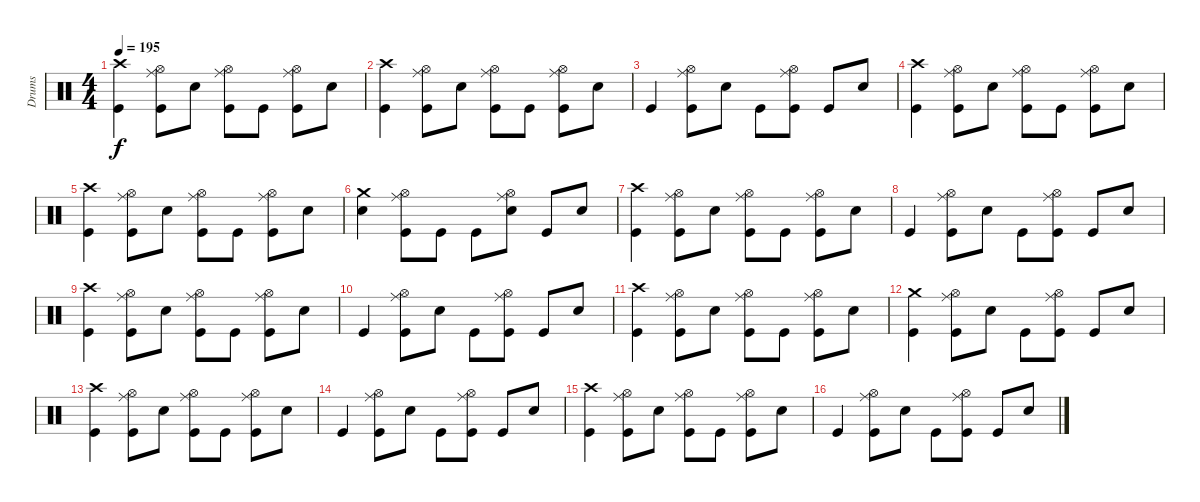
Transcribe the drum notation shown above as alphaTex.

\track ("Drums" "Drums") {instrument percussion}
\staff {score}
\articulation defaults
\ts (4 4)
\tempo 195
\clef neutral
\ks c
("Crash high (hit)" "Kick (hit)").4{dy f} ("Ride (middle)" "Hi-Hat (open)" "Kick (hit)").8 "Electric Snare (hit)".8 ("Ride (middle)" "Hi-Hat (open)" "Kick (hit)").8 "Kick (hit)".8 ("Ride (middle)" "Hi-Hat (open)" "Kick (hit)").8 "Electric Snare (hit)".8 |
("Crash high (hit)" "Kick (hit)").4 ("Hi-Hat (open)" "Ride (middle)" "Kick (hit)").8 "Electric Snare (hit)".8 ("Hi-Hat (open)" "Ride (middle)" "Kick (hit)").8 "Kick (hit)".8 ("Hi-Hat (open)" "Ride (middle)" "Kick (hit)").8 "Electric Snare (hit)".8 |
"Kick (hit)".4 ("Hi-Hat (open)" "Ride (middle)" "Kick (hit)").8 "Electric Snare (hit)".8 "Kick (hit)".8 ("Hi-Hat (open)" "Ride (middle)" "Kick (hit)").8 "Kick (hit)".8 "Electric Snare (hit)".8 |
("Crash high (hit)" "Kick (hit)").4 ("Ride (middle)" "Hi-Hat (open)" "Kick (hit)").8 "Electric Snare (hit)".8 ("Ride (middle)" "Hi-Hat (open)" "Kick (hit)").8 "Kick (hit)".8 ("Ride (middle)" "Hi-Hat (open)" "Kick (hit)").8 "Electric Snare (hit)".8 |
("Crash high (hit)" "Kick (hit)").4 ("Hi-Hat (open)" "Ride (middle)" "Kick (hit)").8 "Electric Snare (hit)".8 ("Hi-Hat (open)" "Ride (middle)" "Kick (hit)").8 "Kick (hit)".8 ("Hi-Hat (open)" "Ride (middle)" "Kick (hit)").8 "Electric Snare (hit)".8 |
("Crash medium (hit)" "Electric Snare (hit)").4 ("Hi-Hat (open)" "Ride (middle)" "Kick (hit)").8 "Kick (hit)".8 "Kick (hit)".8 ("Hi-Hat (open)" "Ride (middle)" "Electric Snare (hit)").8 "Kick (hit)".8 "Electric Snare (hit)".8 |
("Crash high (hit)" "Kick (hit)").4 ("Hi-Hat (open)" "Ride (middle)" "Kick (hit)").8 "Electric Snare (hit)".8 ("Hi-Hat (open)" "Ride (middle)" "Kick (hit)").8 "Kick (hit)".8 ("Hi-Hat (open)" "Ride (middle)" "Kick (hit)").8 "Electric Snare (hit)".8 |
"Kick (hit)".4 ("Hi-Hat (open)" "Ride (middle)" "Kick (hit)").8 "Electric Snare (hit)".8 "Kick (hit)".8 ("Hi-Hat (open)" "Ride (middle)" "Kick (hit)").8 "Kick (hit)".8 "Electric Snare (hit)".8 |
("Crash high (hit)" "Kick (hit)").4 ("Hi-Hat (open)" "Ride (middle)" "Kick (hit)").8 "Electric Snare (hit)".8 ("Hi-Hat (open)" "Ride (middle)" "Kick (hit)").8 "Kick (hit)".8 ("Hi-Hat (open)" "Ride (middle)" "Kick (hit)").8 "Electric Snare (hit)".8 |
"Kick (hit)".4 ("Hi-Hat (open)" "Ride (middle)" "Kick (hit)").8 "Electric Snare (hit)".8 "Kick (hit)".8 ("Hi-Hat (open)" "Ride (middle)" "Kick (hit)").8 "Kick (hit)".8 "Electric Snare (hit)".8 |
("Crash high (hit)" "Kick (hit)").4 ("Hi-Hat (open)" "Ride (middle)" "Kick (hit)").8 "Electric Snare (hit)".8 ("Hi-Hat (open)" "Ride (middle)" "Kick (hit)").8 "Kick (hit)".8 ("Hi-Hat (open)" "Ride (middle)" "Kick (hit)").8 "Electric Snare (hit)".8 |
("Crash medium (hit)" "Kick (hit)").4 ("Hi-Hat (open)" "Ride (middle)" "Kick (hit)").8 "Electric Snare (hit)".8 "Kick (hit)".8 ("Hi-Hat (open)" "Ride (middle)" "Kick (hit)").8 "Kick (hit)".8 "Electric Snare (hit)".8 |
("Crash high (hit)" "Kick (hit)").4 ("Hi-Hat (open)" "Ride (middle)" "Kick (hit)").8 "Electric Snare (hit)".8 ("Hi-Hat (open)" "Ride (middle)" "Kick (hit)").8 "Kick (hit)".8 ("Hi-Hat (open)" "Ride (middle)" "Kick (hit)").8 "Electric Snare (hit)".8 |
"Kick (hit)".4 ("Hi-Hat (open)" "Ride (middle)" "Kick (hit)").8 "Electric Snare (hit)".8 "Kick (hit)".8 ("Hi-Hat (open)" "Ride (middle)" "Kick (hit)").8 "Kick (hit)".8 "Electric Snare (hit)".8 |
("Crash high (hit)" "Kick (hit)").4 ("Hi-Hat (open)" "Ride (middle)" "Kick (hit)").8 "Electric Snare (hit)".8 ("Hi-Hat (open)" "Ride (middle)" "Kick (hit)").8 "Kick (hit)".8 ("Hi-Hat (open)" "Ride (middle)" "Kick (hit)").8 "Electric Snare (hit)".8 |
"Kick (hit)".4 ("Hi-Hat (open)" "Ride (middle)" "Kick (hit)").8 "Electric Snare (hit)".8 "Kick (hit)".8 ("Hi-Hat (open)" "Ride (middle)" "Kick (hit)").8 "Kick (hit)".8 "Electric Snare (hit)".8
